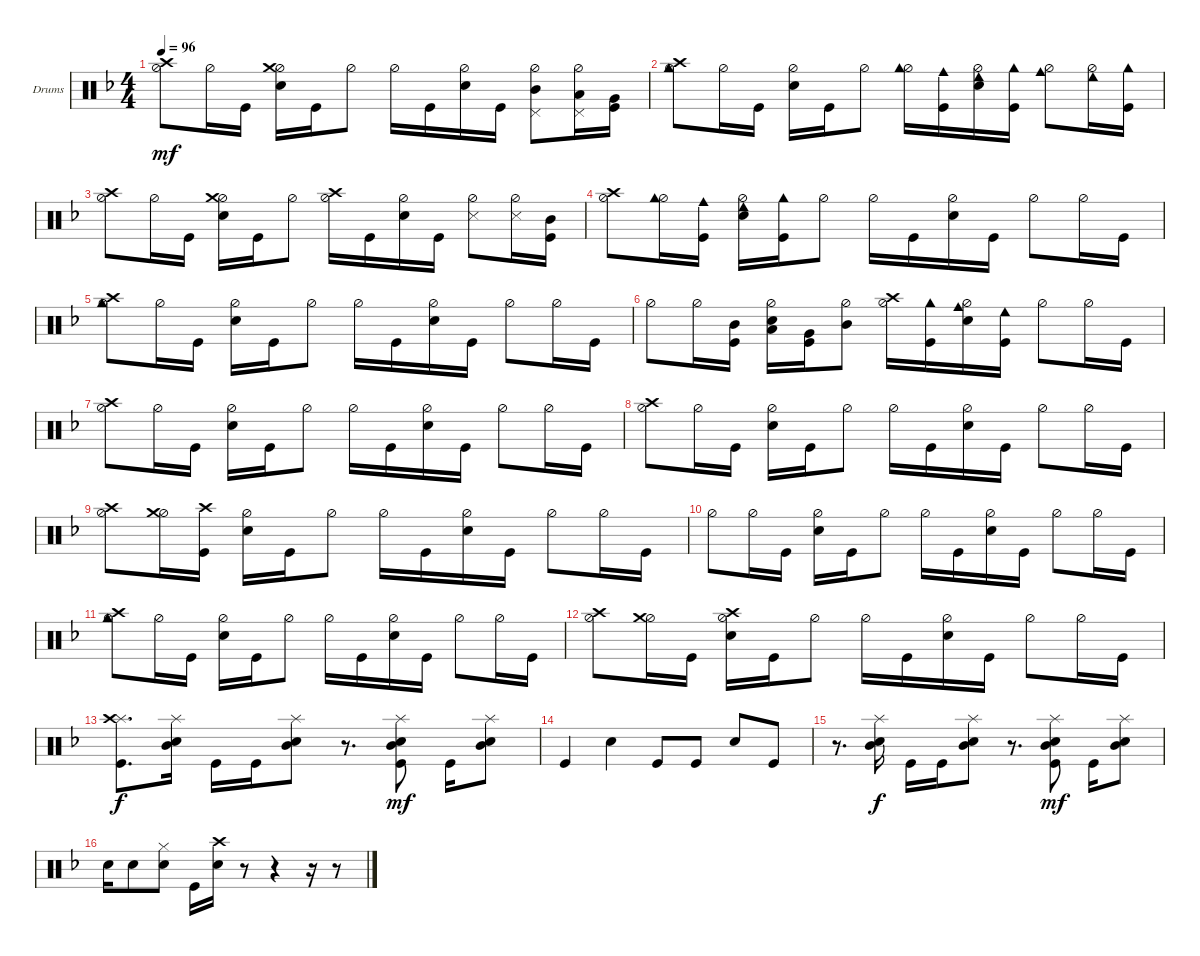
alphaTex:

\defaultSystemsLayout 4
\bracketExtendMode groupsimilarinstruments
\firstSystemTrackNameOrientation horizontal
\otherSystemsTrackNameOrientation horizontal
\track ("Drumkit" "Drums") {instrument percussion}
\staff {score}
\articulation defaults
\ts (4 4)
\tempo 96
\clef neutral
\scale
0.333333
\ks dminor
("Hi-Hat (half)" "Crash high (hit)").8{dy mf} "Hi-Hat (half)".16 "Kick (hit)".16 ("Snare (hit) 2" "Hi-Hat (half)" "Crash medium (hit)").16 "Kick (hit)".16 "Hi-Hat (half)".8 "Hi-Hat (half)".16 "Kick (hit)".16 ("Snare (hit) 2" "Hi-Hat (half)").16 "Kick (hit)".16 ("Hi-Hat (half)" "Pedal Hi-Hat (hit)" "Mid Tom (hit)").8 ("Hi-Hat (half)" "Pedal Hi-Hat (hit)" "Low Tom (hit)").16 ("Kick (hit)" "Very Low Tom (hit)").16 |
\scale
0.333333 ("Hi-Hat (half)" "Crash high (hit)" "Cowbell high (hit)").8 "Hi-Hat (half)".16 "Kick (hit)".16 ("Snare (hit) 2" "Hi-Hat (half)").16 "Kick (hit)".16 "Hi-Hat (half)".8 ("Hi-Hat (half)" "Cowbell high (hit)").16 ("Kick (hit)" "Cowbell medium (hit)").16 ("Snare (hit) 2" "Hi-Hat (half)" "Cowbell low (hit)").16 ("Kick (hit)" "Cowbell high (hit)").16 ("Hi-Hat (half)" "Cowbell medium (hit)").8 ("Hi-Hat (half)" "Cowbell low (hit)").16 ("Kick (hit)" "Cowbell high (hit)").16 |
\scale
0.333333 ("Hi-Hat (half)" "Crash high (hit)").8 "Hi-Hat (half)".16 "Kick (hit)".16 ("Snare (hit) 2" "Hi-Hat (half)" "Crash medium (hit)").16 "Kick (hit)".16 "Hi-Hat (half)".8 ("Hi-Hat (half)" "Crash high (hit)").16 "Kick (hit)".16 ("Snare (hit) 2" "Hi-Hat (half)").16 "Kick (hit)".16 ("Hi-Hat (half)" "Snare (side stick) 3").8 ("Hi-Hat (half)" "Snare (side stick) 3").16 ("Kick (hit)" "Mid Tom (hit)").16 |
\scale
0.333333 ("Hi-Hat (half)" "Crash high (hit)").8 ("Hi-Hat (half)" "Cowbell high (hit)").16 ("Kick (hit)" "Cowbell medium (hit)").16 ("Snare (hit) 2" "Hi-Hat (half)" "Cowbell low (hit)").16 ("Kick (hit)" "Cowbell high (hit)").16 "Hi-Hat (half)".8 "Hi-Hat (half)".16 "Kick (hit)".16 ("Snare (hit) 2" "Hi-Hat (half)").16 "Kick (hit)".16 "Hi-Hat (half)".8 "Hi-Hat (half)".16 "Kick (hit)".16 |
\scale
0.333333 ("Hi-Hat (half)" "Crash high (hit)" "Cowbell high (hit)").8 "Hi-Hat (half)".16 "Kick (hit)".16 ("Snare (hit) 2" "Hi-Hat (half)").16 "Kick (hit)".16 "Hi-Hat (half)".8 "Hi-Hat (half)".16 "Kick (hit)".16 ("Snare (hit) 2" "Hi-Hat (half)").16 "Kick (hit)".16 "Hi-Hat (half)".8 "Hi-Hat (half)".16 "Kick (hit)".16 |
\scale
0.333333 "Hi-Hat (half)".8 "Hi-Hat (half)".16 ("Kick (hit)" "Mid Tom (hit)").16 ("Snare (hit) 2" "Hi-Hat (half)" "Low Tom (hit)").16 ("Kick (hit)" "Very Low Tom (hit)").16 ("Hi-Hat (half)" "Mid Tom (hit)").8 ("Hi-Hat (half)" "Crash high (hit)").16 ("Kick (hit)" "Cowbell high (hit)").16 ("Snare (hit) 2" "Hi-Hat (half)" "Cowbell medium (hit)").16 ("Kick (hit)" "Cowbell low (hit)").16 "Hi-Hat (half)".8 "Hi-Hat (half)".16 "Kick (hit)".16 |
\scale
0.333333 ("Hi-Hat (half)" "Crash high (hit)").8 "Hi-Hat (half)".16 "Kick (hit)".16 ("Snare (hit) 2" "Hi-Hat (half)").16 "Kick (hit)".16 "Hi-Hat (half)".8 "Hi-Hat (half)".16 "Kick (hit)".16 ("Snare (hit) 2" "Hi-Hat (half)").16 "Kick (hit)".16 "Hi-Hat (half)".8 "Hi-Hat (half)".16 "Kick (hit)".16 |
\scale
0.333333 ("Hi-Hat (half)" "Crash high (hit)").8 "Hi-Hat (half)".16 "Kick (hit)".16 ("Snare (hit) 2" "Hi-Hat (half)").16 "Kick (hit)".16 "Hi-Hat (half)".8 "Hi-Hat (half)".16 "Kick (hit)".16 ("Snare (hit) 2" "Hi-Hat (half)").16 "Kick (hit)".16 "Hi-Hat (half)".8 "Hi-Hat (half)".16 "Kick (hit)".16 |
\scale
0.333333 ("Hi-Hat (half)" "Crash high (hit)").8 ("Hi-Hat (half)" "Crash medium (hit)").16 ("Kick (hit)" "Crash high (hit)").16 ("Snare (hit) 2" "Hi-Hat (half)").16 "Kick (hit)".16 "Hi-Hat (half)".8 "Hi-Hat (half)".16 "Kick (hit)".16 ("Snare (hit) 2" "Hi-Hat (half)").16 "Kick (hit)".16 "Hi-Hat (half)".8 "Hi-Hat (half)".16 "Kick (hit)".16 |
\scale
0.333333 "Hi-Hat (half)".8 "Hi-Hat (half)".16 "Kick (hit)".16 ("Snare (hit) 2" "Hi-Hat (half)").16 "Kick (hit)".16 "Hi-Hat (half)".8 "Hi-Hat (half)".16 "Kick (hit)".16 ("Snare (hit) 2" "Hi-Hat (half)").16 "Kick (hit)".16 "Hi-Hat (half)".8 "Hi-Hat (half)".16 "Kick (hit)".16 |
\scale
0.333333 ("Hi-Hat (half)" "Crash high (hit)" "Cowbell high (hit)").8 "Hi-Hat (half)".16 "Kick (hit)".16 ("Snare (hit) 2" "Hi-Hat (half)").16 "Kick (hit)".16 "Hi-Hat (half)".8 "Hi-Hat (half)".16 "Kick (hit)".16 ("Snare (hit) 2" "Hi-Hat (half)").16 "Kick (hit)".16 "Hi-Hat (half)".8 "Hi-Hat (half)".16 "Kick (hit)".16 |
\scale
0.333333 ("Hi-Hat (half)" "Crash high (hit)").8 ("Hi-Hat (half)" "Crash medium (hit)").16 "Kick (hit)".16 ("Snare (hit) 2" "Hi-Hat (half)" "Crash high (hit)").16 "Kick (hit)".16 "Hi-Hat (half)".8 "Hi-Hat (half)".16 "Kick (hit)".16 ("Snare (hit) 2" "Hi-Hat (half)").16 "Kick (hit)".16 "Hi-Hat (half)".8 "Hi-Hat (half)".16 "Kick (hit)".16 |
\scale
0.333333 ("Kick (hit)" "Splash (hit)" "Crash high (hit)").8{d dy f} ("Mid Tom (hit)" "Snare (hit) 2" "Splash (hit)").16 "Kick (hit)".16 "Kick (hit)".16 ("Mid Tom (hit)" "Snare (hit) 2" "Splash (hit)").8 r.8{d} ("Splash (hit)" "Snare (hit) 2" "Mid Tom (hit)" "Kick (hit)").8{dy mf} "Kick (hit)".16 ("Mid Tom (hit)" "Snare (hit) 2" "Splash (hit)").8 |
\scale
0.333333 "Kick (hit)".4 "Snare (hit) 2".4 "Kick (hit)".8 "Kick (hit)".8 "Snare (hit) 2".8 "Kick (hit)".8 |
\scale
0.333333 r.8{d} ("Mid Tom (hit)" "Snare (hit) 2" "Splash (hit)").16{dy f} "Kick (hit)".16 "Kick (hit)".16 ("Mid Tom (hit)" "Snare (hit) 2" "Splash (hit)").8 r.8{d} ("Splash (hit)" "Snare (hit) 2" "Mid Tom (hit)" "Kick (hit)").8{dy mf} "Kick (hit)".16 ("Mid Tom (hit)" "Snare (hit) 2" "Splash (hit)").8 |
\scale
0.333333 "Snare (hit) 2".16 "Snare (hit) 2".8 ("Snare (hit) 2" "Hi-Hat (closed)").8 "Kick (hit)".16 ("Snare (hit) 2" "Crash high (hit)").16 r.8 r.4 r.16 r.8
